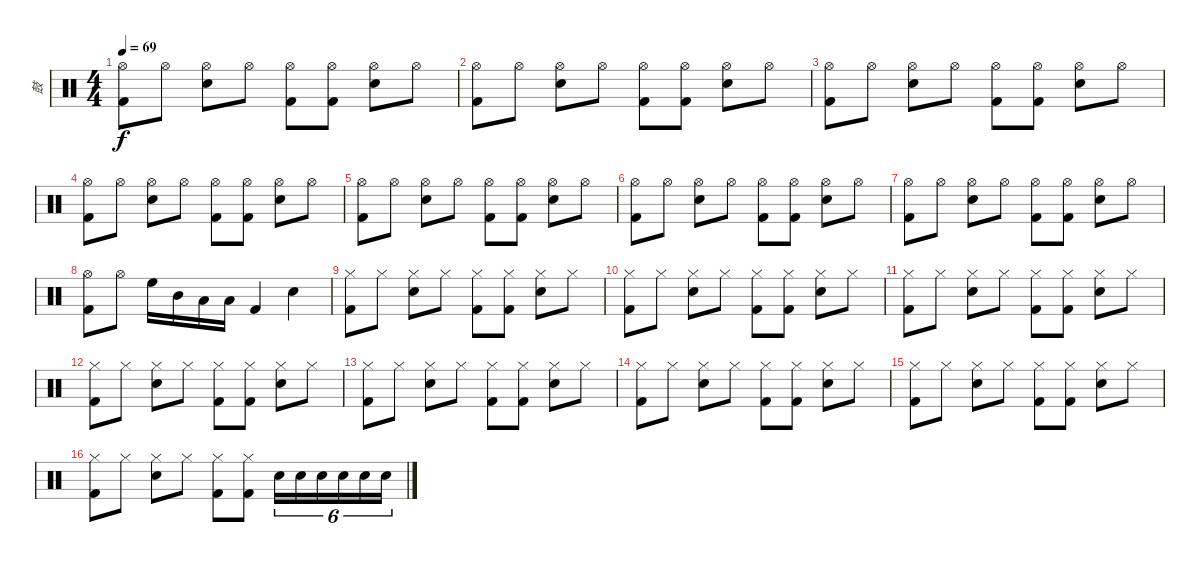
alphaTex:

\track ("鼓" "鼓") {instrument percussion}
\staff {score}
\articulation defaults
\ts (4 4)
\tempo 69
\clef neutral
\ks c
("Hi-Hat (open)" "Kick (hit) 2").8{dy f} "Hi-Hat (open)".8 ("Hi-Hat (open)" "Snare (hit) 2").8 "Hi-Hat (open)".8 ("Hi-Hat (open)" "Kick (hit) 2").8 ("Hi-Hat (open)" "Kick (hit) 2").8 ("Hi-Hat (open)" "Snare (hit) 2").8 "Hi-Hat (open)".8 |
("Hi-Hat (open)" "Kick (hit) 2").8 "Hi-Hat (open)".8 ("Hi-Hat (open)" "Snare (hit) 2").8 "Hi-Hat (open)".8 ("Hi-Hat (open)" "Kick (hit) 2").8 ("Hi-Hat (open)" "Kick (hit) 2").8 ("Hi-Hat (open)" "Snare (hit) 2").8 "Hi-Hat (open)".8 |
("Hi-Hat (open)" "Kick (hit) 2").8 "Hi-Hat (open)".8 ("Hi-Hat (open)" "Snare (hit) 2").8 "Hi-Hat (open)".8 ("Hi-Hat (open)" "Kick (hit) 2").8 ("Hi-Hat (open)" "Kick (hit) 2").8 ("Hi-Hat (open)" "Snare (hit) 2").8 "Hi-Hat (open)".8 |
("Hi-Hat (open)" "Kick (hit) 2").8 "Hi-Hat (open)".8 ("Hi-Hat (open)" "Snare (hit) 2").8 "Hi-Hat (open)".8 ("Hi-Hat (open)" "Kick (hit) 2").8 ("Hi-Hat (open)" "Kick (hit) 2").8 ("Hi-Hat (open)" "Snare (hit) 2").8 "Hi-Hat (open)".8 |
("Hi-Hat (open)" "Kick (hit) 2").8 "Hi-Hat (open)".8 ("Hi-Hat (open)" "Snare (hit) 2").8 "Hi-Hat (open)".8 ("Hi-Hat (open)" "Kick (hit) 2").8 ("Hi-Hat (open)" "Kick (hit) 2").8 ("Hi-Hat (open)" "Snare (hit) 2").8 "Hi-Hat (open)".8 |
("Hi-Hat (open)" "Kick (hit) 2").8 "Hi-Hat (open)".8 ("Hi-Hat (open)" "Snare (hit) 2").8 "Hi-Hat (open)".8 ("Hi-Hat (open)" "Kick (hit) 2").8 ("Hi-Hat (open)" "Kick (hit) 2").8 ("Hi-Hat (open)" "Snare (hit) 2").8 "Hi-Hat (open)".8 |
("Hi-Hat (open)" "Kick (hit) 2").8 "Hi-Hat (open)".8 ("Hi-Hat (open)" "Snare (hit) 2").8 "Hi-Hat (open)".8 ("Hi-Hat (open)" "Kick (hit) 2").8 ("Hi-Hat (open)" "Kick (hit) 2").8 ("Hi-Hat (open)" "Snare (hit) 2").8 "Hi-Hat (open)".8 |
("Hi-Hat (open)" "Kick (hit) 2").8 "Hi-Hat (open)".8 "High Floor Tom (hit)".16 "Mid Tom (hit)".16 "Low Tom (hit)".16 "Low Floor Tom (hit)".16 "Kick (hit) 2".4 "Snare (hit) 2".4 |
("Hi-Hat (closed)" "Kick (hit) 2").8 "Hi-Hat (closed)".8 ("Hi-Hat (closed)" "Snare (hit) 2").8 "Hi-Hat (closed)".8 ("Hi-Hat (closed)" "Kick (hit) 2").8 ("Hi-Hat (closed)" "Kick (hit) 2").8 ("Hi-Hat (closed)" "Snare (hit) 2").8 "Hi-Hat (closed)".8 |
("Hi-Hat (closed)" "Kick (hit) 2").8 "Hi-Hat (closed)".8 ("Hi-Hat (closed)" "Snare (hit) 2").8 "Hi-Hat (closed)".8 ("Hi-Hat (closed)" "Kick (hit) 2").8 ("Hi-Hat (closed)" "Kick (hit) 2").8 ("Hi-Hat (closed)" "Snare (hit) 2").8 "Hi-Hat (closed)".8 |
("Hi-Hat (closed)" "Kick (hit) 2").8 "Hi-Hat (closed)".8 ("Hi-Hat (closed)" "Snare (hit) 2").8 "Hi-Hat (closed)".8 ("Hi-Hat (closed)" "Kick (hit) 2").8 ("Hi-Hat (closed)" "Kick (hit) 2").8 ("Hi-Hat (closed)" "Snare (hit) 2").8 "Hi-Hat (closed)".8 |
("Hi-Hat (closed)" "Kick (hit) 2").8 "Hi-Hat (closed)".8 ("Hi-Hat (closed)" "Snare (hit) 2").8 "Hi-Hat (closed)".8 ("Hi-Hat (closed)" "Kick (hit) 2").8 ("Hi-Hat (closed)" "Kick (hit) 2").8 ("Hi-Hat (closed)" "Snare (hit) 2").8 "Hi-Hat (closed)".8 |
("Hi-Hat (closed)" "Kick (hit) 2").8 "Hi-Hat (closed)".8 ("Hi-Hat (closed)" "Snare (hit) 2").8 "Hi-Hat (closed)".8 ("Hi-Hat (closed)" "Kick (hit) 2").8 ("Hi-Hat (closed)" "Kick (hit) 2").8 ("Hi-Hat (closed)" "Snare (hit) 2").8 "Hi-Hat (closed)".8 |
("Hi-Hat (closed)" "Kick (hit) 2").8 "Hi-Hat (closed)".8 ("Hi-Hat (closed)" "Snare (hit) 2").8 "Hi-Hat (closed)".8 ("Hi-Hat (closed)" "Kick (hit) 2").8 ("Hi-Hat (closed)" "Kick (hit) 2").8 ("Hi-Hat (closed)" "Snare (hit) 2").8 "Hi-Hat (closed)".8 |
("Hi-Hat (closed)" "Kick (hit) 2").8 "Hi-Hat (closed)".8 ("Hi-Hat (closed)" "Snare (hit) 2").8 "Hi-Hat (closed)".8 ("Hi-Hat (closed)" "Kick (hit) 2").8 ("Hi-Hat (closed)" "Kick (hit) 2").8 ("Hi-Hat (closed)" "Snare (hit) 2").8 "Hi-Hat (closed)".8 |
("Hi-Hat (closed)" "Kick (hit) 2").8 "Hi-Hat (closed)".8 ("Hi-Hat (closed)" "Snare (hit) 2").8 "Hi-Hat (closed)".8 ("Hi-Hat (closed)" "Kick (hit) 2").8 ("Hi-Hat (closed)" "Kick (hit) 2").8 "Snare (hit) 2".16{tu (6 4)} "Snare (hit) 2".16{tu (6 4)} "Snare (hit) 2".16{tu (6 4)} "Snare (hit) 2".16{tu (6 4)} "Snare (hit) 2".16{tu (6 4)} "Snare (hit) 2".16{tu (6 4)}
